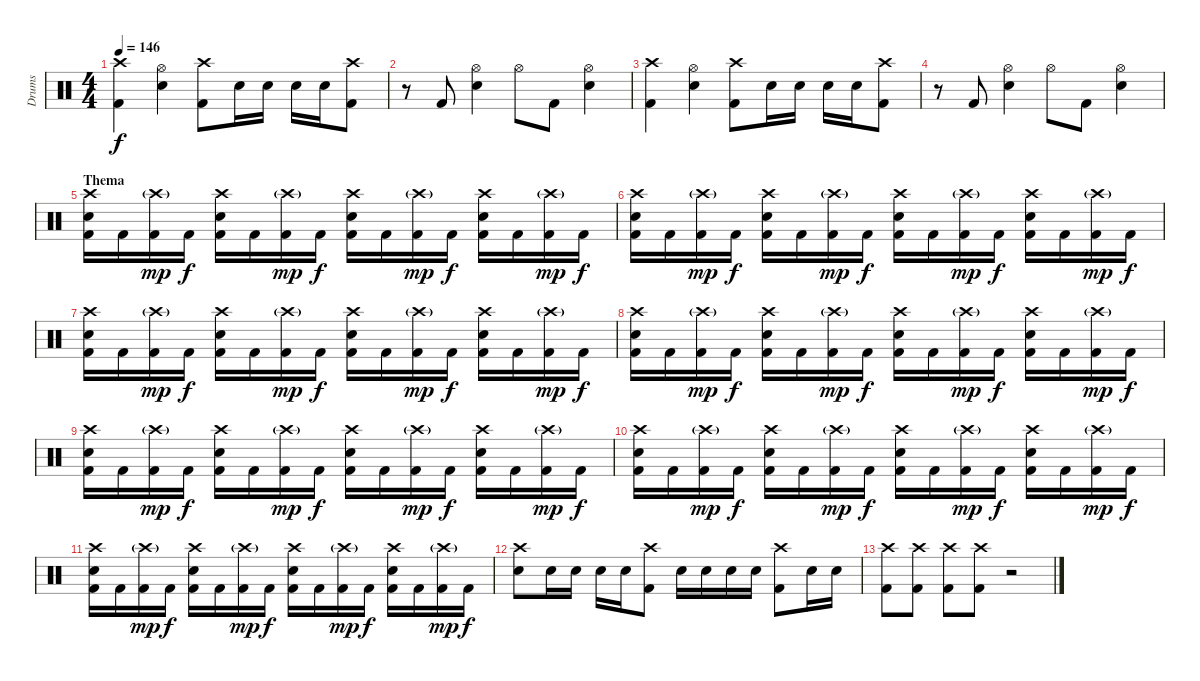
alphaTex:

\track ("Drums" "Drums") {instrument percussion}
\staff {score}
\articulation defaults
\ts (4 4)
\tempo 146
\clef neutral
\ks c
("Crash high (hit)" "Kick (hit) 2").4{dy f} ("Hi-Hat (open)" "Electric Snare (hit)").4 ("Crash high (hit)" "Kick (hit) 2").8 "Electric Snare (hit)".16 "Electric Snare (hit)".16 "Electric Snare (hit)".16 "Electric Snare (hit)".16 ("Crash high (hit)" "Kick (hit) 2").8 |
r.8 "Kick (hit) 2".8 ("Hi-Hat (open)" "Electric Snare (hit)").4 "Hi-Hat (open)".8 "Kick (hit) 2".8 ("Hi-Hat (open)" "Electric Snare (hit)").4 |
("Crash high (hit)" "Kick (hit) 2").4 ("Hi-Hat (open)" "Electric Snare (hit)").4 ("Crash high (hit)" "Kick (hit) 2").8 "Electric Snare (hit)".16 "Electric Snare (hit)".16 "Electric Snare (hit)".16 "Electric Snare (hit)".16 ("Crash high (hit)" "Kick (hit) 2").8 |
r.8 "Kick (hit) 2".8 ("Hi-Hat (open)" "Electric Snare (hit)").4 "Hi-Hat (open)".8 "Kick (hit) 2".8 ("Hi-Hat (open)" "Electric Snare (hit)").4 |
\section ("" "Thema")
("Crash high (hit)" "Electric Snare (hit)" "Kick (hit) 2").16 "Kick (hit) 2".16 ("Crash high (hit)"{g} "Kick (hit) 2").16{dy mp} "Kick (hit) 2".16{dy f} ("Crash high (hit)" "Electric Snare (hit)" "Kick (hit) 2").16 "Kick (hit) 2".16 ("Crash high (hit)"{g} "Kick (hit) 2").16{dy mp} "Kick (hit) 2".16{dy f} ("Crash high (hit)" "Electric Snare (hit)" "Kick (hit) 2").16 "Kick (hit) 2".16 ("Crash high (hit)"{g} "Kick (hit) 2").16{dy mp} "Kick (hit) 2".16{dy f} ("Crash high (hit)" "Electric Snare (hit)" "Kick (hit) 2").16 "Kick (hit) 2".16 ("Crash high (hit)"{g} "Kick (hit) 2").16{dy mp} "Kick (hit) 2".16{dy f} |
("Crash high (hit)" "Electric Snare (hit)" "Kick (hit) 2").16 "Kick (hit) 2".16 ("Crash high (hit)"{g} "Kick (hit) 2").16{dy mp} "Kick (hit) 2".16{dy f} ("Crash high (hit)" "Electric Snare (hit)" "Kick (hit) 2").16 "Kick (hit) 2".16 ("Crash high (hit)"{g} "Kick (hit) 2").16{dy mp} "Kick (hit) 2".16{dy f} ("Crash high (hit)" "Electric Snare (hit)" "Kick (hit) 2").16 "Kick (hit) 2".16 ("Crash high (hit)"{g} "Kick (hit) 2").16{dy mp} "Kick (hit) 2".16{dy f} ("Crash high (hit)" "Electric Snare (hit)" "Kick (hit) 2").16 "Kick (hit) 2".16 ("Crash high (hit)"{g} "Kick (hit) 2").16{dy mp} "Kick (hit) 2".16{dy f} |
("Crash high (hit)" "Electric Snare (hit)" "Kick (hit) 2").16 "Kick (hit) 2".16 ("Crash high (hit)"{g} "Kick (hit) 2").16{dy mp} "Kick (hit) 2".16{dy f} ("Crash high (hit)" "Electric Snare (hit)" "Kick (hit) 2").16 "Kick (hit) 2".16 ("Crash high (hit)"{g} "Kick (hit) 2").16{dy mp} "Kick (hit) 2".16{dy f} ("Crash high (hit)" "Electric Snare (hit)" "Kick (hit) 2").16 "Kick (hit) 2".16 ("Crash high (hit)"{g} "Kick (hit) 2").16{dy mp} "Kick (hit) 2".16{dy f} ("Crash high (hit)" "Electric Snare (hit)" "Kick (hit) 2").16 "Kick (hit) 2".16 ("Crash high (hit)"{g} "Kick (hit) 2").16{dy mp} "Kick (hit) 2".16{dy f} |
("Crash high (hit)" "Electric Snare (hit)" "Kick (hit) 2").16 "Kick (hit) 2".16 ("Crash high (hit)"{g} "Kick (hit) 2").16{dy mp} "Kick (hit) 2".16{dy f} ("Crash high (hit)" "Electric Snare (hit)" "Kick (hit) 2").16 "Kick (hit) 2".16 ("Crash high (hit)"{g} "Kick (hit) 2").16{dy mp} "Kick (hit) 2".16{dy f} ("Crash high (hit)" "Electric Snare (hit)" "Kick (hit) 2").16 "Kick (hit) 2".16 ("Crash high (hit)"{g} "Kick (hit) 2").16{dy mp} "Kick (hit) 2".16{dy f} ("Crash high (hit)" "Electric Snare (hit)" "Kick (hit) 2").16 "Kick (hit) 2".16 ("Crash high (hit)"{g} "Kick (hit) 2").16{dy mp} "Kick (hit) 2".16{dy f} |
("Crash high (hit)" "Electric Snare (hit)" "Kick (hit) 2").16 "Kick (hit) 2".16 ("Crash high (hit)"{g} "Kick (hit) 2").16{dy mp} "Kick (hit) 2".16{dy f} ("Crash high (hit)" "Electric Snare (hit)" "Kick (hit) 2").16 "Kick (hit) 2".16 ("Crash high (hit)"{g} "Kick (hit) 2").16{dy mp} "Kick (hit) 2".16{dy f} ("Crash high (hit)" "Electric Snare (hit)" "Kick (hit) 2").16 "Kick (hit) 2".16 ("Crash high (hit)"{g} "Kick (hit) 2").16{dy mp} "Kick (hit) 2".16{dy f} ("Crash high (hit)" "Electric Snare (hit)" "Kick (hit) 2").16 "Kick (hit) 2".16 ("Crash high (hit)"{g} "Kick (hit) 2").16{dy mp} "Kick (hit) 2".16{dy f} |
("Crash high (hit)" "Electric Snare (hit)" "Kick (hit) 2").16 "Kick (hit) 2".16 ("Crash high (hit)"{g} "Kick (hit) 2").16{dy mp} "Kick (hit) 2".16{dy f} ("Crash high (hit)" "Electric Snare (hit)" "Kick (hit) 2").16 "Kick (hit) 2".16 ("Crash high (hit)"{g} "Kick (hit) 2").16{dy mp} "Kick (hit) 2".16{dy f} ("Crash high (hit)" "Electric Snare (hit)" "Kick (hit) 2").16 "Kick (hit) 2".16 ("Crash high (hit)"{g} "Kick (hit) 2").16{dy mp} "Kick (hit) 2".16{dy f} ("Crash high (hit)" "Electric Snare (hit)" "Kick (hit) 2").16 "Kick (hit) 2".16 ("Crash high (hit)"{g} "Kick (hit) 2").16{dy mp} "Kick (hit) 2".16{dy f} |
("Crash high (hit)" "Electric Snare (hit)" "Kick (hit) 2").16 "Kick (hit) 2".16 ("Crash high (hit)"{g} "Kick (hit) 2").16{dy mp} "Kick (hit) 2".16{dy f} ("Crash high (hit)" "Electric Snare (hit)" "Kick (hit) 2").16 "Kick (hit) 2".16 ("Crash high (hit)"{g} "Kick (hit) 2").16{dy mp} "Kick (hit) 2".16{dy f} ("Crash high (hit)" "Electric Snare (hit)" "Kick (hit) 2").16 "Kick (hit) 2".16 ("Crash high (hit)"{g} "Kick (hit) 2").16{dy mp} "Kick (hit) 2".16{dy f} ("Crash high (hit)" "Electric Snare (hit)" "Kick (hit) 2").16 "Kick (hit) 2".16 ("Crash high (hit)"{g} "Kick (hit) 2").16{dy mp} "Kick (hit) 2".16{dy f} |
("Crash high (hit)" "Electric Snare (hit)").8 "Electric Snare (hit)".16 "Electric Snare (hit)".16 "Electric Snare (hit)".16 "Electric Snare (hit)".16 ("Crash high (hit)" "Kick (hit) 2").8 "Electric Snare (hit)".16 "Electric Snare (hit)".16 "Electric Snare (hit)".16 "Electric Snare (hit)".16 ("Crash high (hit)" "Kick (hit) 2").8 "Electric Snare (hit)".16 "Electric Snare (hit)".16 |
("Crash high (hit)" "Kick (hit) 2").8 ("Crash high (hit)" "Kick (hit) 2").8 ("Crash high (hit)" "Kick (hit) 2").8 ("Crash high (hit)" "Kick (hit) 2").8 r.2
